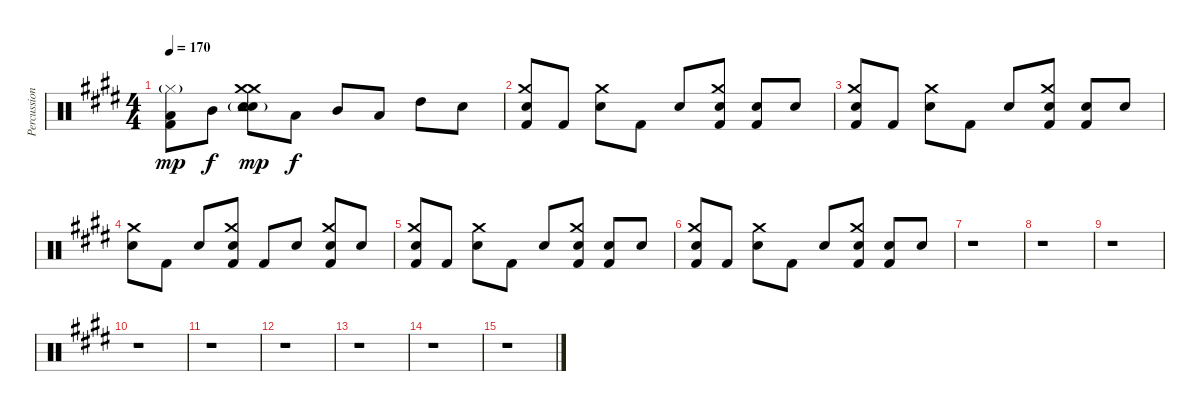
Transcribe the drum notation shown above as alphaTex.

\track ("Percussion" "Percussion") {instrument percussion}
\staff {score}
\articulation defaults
\ts (4 4)
\tempo 170
\clef neutral
\ks e
("Hi-Hat (closed)"{g} "Low Tom (hit)" "Kick (hit) 2").8{dy mp volume 10} "Mid Tom (hit)".8{dy f} ("Crash medium (hit)" "Crash medium (hit)" "Snare (hit) 2" "Snare (hit) 2" "Tambourine (hit)"{g}).8{dy mp} "Low Tom (hit)".8{dy f} "Mid Tom (hit)".8 "Low Tom (hit)".8 "High Tom (hit)".8 "Snare (hit) 2".8 |
("Crash medium (hit)" "Snare (hit) 2" "Kick (hit) 2").8{volume 7} "Kick (hit) 2".8 ("Crash medium (hit)" "Snare (hit) 2").8 "Kick (hit) 2".8 "Snare (hit) 2".8 ("Crash medium (hit)" "Snare (hit) 2" "Kick (hit) 2").8{volume 6} ("Snare (hit) 2" "Kick (hit) 2").8 "Snare (hit) 2".8 |
("Crash medium (hit)" "Snare (hit) 2" "Kick (hit) 2").8{volume 5} "Kick (hit) 2".8 ("Crash medium (hit)" "Snare (hit) 2").8 "Kick (hit) 2".8 "Snare (hit) 2".8 ("Crash medium (hit)" "Snare (hit) 2" "Kick (hit) 2").8 ("Snare (hit) 2" "Kick (hit) 2").8{volume 3} "Snare (hit) 2".8 |
("Crash medium (hit)" "Snare (hit) 2").8{volume 2} "Kick (hit) 2".8 "Snare (hit) 2".8 ("Crash medium (hit)" "Snare (hit) 2" "Kick (hit) 2").8 "Kick (hit) 2".8 "Snare (hit) 2".8 ("Crash medium (hit)" "Snare (hit) 2" "Kick (hit) 2").8 "Snare (hit) 2".8{volume 0} |
("Crash medium (hit)" "Snare (hit) 2" "Kick (hit) 2").8 "Kick (hit) 2".8 ("Crash medium (hit)" "Snare (hit) 2").8 "Kick (hit) 2".8 "Snare (hit) 2".8 ("Crash medium (hit)" "Snare (hit) 2" "Kick (hit) 2").8 ("Snare (hit) 2" "Kick (hit) 2").8 "Snare (hit) 2".8 |
("Crash medium (hit)" "Snare (hit) 2" "Kick (hit) 2").8 "Kick (hit) 2".8 ("Crash medium (hit)" "Snare (hit) 2").8 "Kick (hit) 2".8 "Snare (hit) 2".8 ("Crash medium (hit)" "Snare (hit) 2" "Kick (hit) 2").8 ("Snare (hit) 2" "Kick (hit) 2").8 "Snare (hit) 2".8 |
r.1 |
r.1 |
r.1 |
r.1 |
r.1 |
r.1 |
r.1 |
r.1 |
r.1
